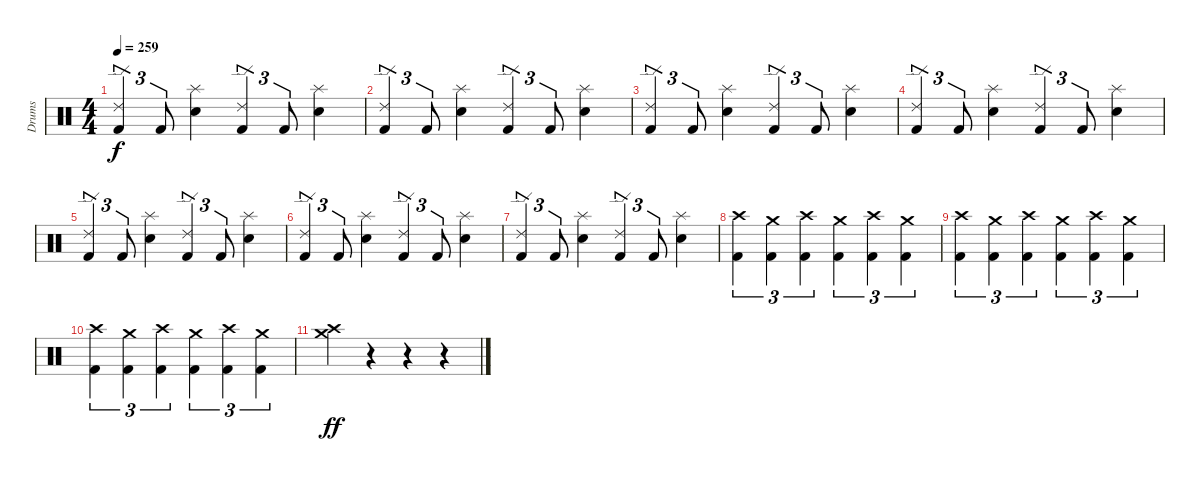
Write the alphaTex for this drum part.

\track ("Drums" "Drums") {instrument percussion}
\staff {score}
\articulation defaults
\ts (4 4)
\tempo 259
\clef neutral
\ks c
("Ride (edge) 2" "Kick (hit) 2").4{tu (3 2) dy f} "Kick (hit) 2".8{tu (3 2)} ("Splash (hit)" "Snare (hit) 2").4 ("Ride (edge) 2" "Kick (hit) 2").4{tu (3 2)} "Kick (hit) 2".8{tu (3 2)} ("Splash (hit)" "Snare (hit) 2").4 |
("Ride (edge) 2" "Kick (hit) 2").4{tu (3 2)} "Kick (hit) 2".8{tu (3 2)} ("Splash (hit)" "Snare (hit) 2").4 ("Ride (edge) 2" "Kick (hit) 2").4{tu (3 2)} "Kick (hit) 2".8{tu (3 2)} ("Splash (hit)" "Snare (hit) 2").4 |
("Ride (edge) 2" "Kick (hit) 2").4{tu (3 2)} "Kick (hit) 2".8{tu (3 2)} ("Splash (hit)" "Snare (hit) 2").4 ("Ride (edge) 2" "Kick (hit) 2").4{tu (3 2)} "Kick (hit) 2".8{tu (3 2)} ("Splash (hit)" "Snare (hit) 2").4 |
("Ride (edge) 2" "Kick (hit) 2").4{tu (3 2)} "Kick (hit) 2".8{tu (3 2)} ("Splash (hit)" "Snare (hit) 2").4 ("Ride (edge) 2" "Kick (hit) 2").4{tu (3 2)} "Kick (hit) 2".8{tu (3 2)} ("Splash (hit)" "Snare (hit) 2").4 |
("Ride (edge) 2" "Kick (hit) 2").4{tu (3 2)} "Kick (hit) 2".8{tu (3 2)} ("Splash (hit)" "Snare (hit) 2").4 ("Ride (edge) 2" "Kick (hit) 2").4{tu (3 2)} "Kick (hit) 2".8{tu (3 2)} ("Splash (hit)" "Snare (hit) 2").4 |
("Ride (edge) 2" "Kick (hit) 2").4{tu (3 2)} "Kick (hit) 2".8{tu (3 2)} ("Splash (hit)" "Snare (hit) 2").4 ("Ride (edge) 2" "Kick (hit) 2").4{tu (3 2)} "Kick (hit) 2".8{tu (3 2)} ("Splash (hit)" "Snare (hit) 2").4 |
("Ride (edge) 2" "Kick (hit) 2").4{tu (3 2)} "Kick (hit) 2".8{tu (3 2)} ("Splash (hit)" "Snare (hit) 2").4 ("Ride (edge) 2" "Kick (hit) 2").4{tu (3 2)} "Kick (hit) 2".8{tu (3 2)} ("Splash (hit)" "Snare (hit) 2").4 |
("Kick (hit) 2" "Crash high (hit)").4{tu (3 2)} ("Kick (hit) 2" "Crash medium (hit)").4{tu (3 2)} ("Kick (hit) 2" "Crash high (hit)").4{tu (3 2)} ("Kick (hit) 2" "Crash medium (hit)").4{tu (3 2)} ("Kick (hit) 2" "Crash high (hit)").4{tu (3 2)} ("Kick (hit) 2" "Crash medium (hit)").4{tu (3 2)} |
("Kick (hit) 2" "Crash high (hit)").4{tu (3 2)} ("Kick (hit) 2" "Crash medium (hit)").4{tu (3 2)} ("Kick (hit) 2" "Crash high (hit)").4{tu (3 2)} ("Kick (hit) 2" "Crash medium (hit)").4{tu (3 2)} ("Kick (hit) 2" "Crash high (hit)").4{tu (3 2)} ("Kick (hit) 2" "Crash medium (hit)").4{tu (3 2)} |
("Kick (hit) 2" "Crash high (hit)").4{tu (3 2)} ("Kick (hit) 2" "Crash medium (hit)").4{tu (3 2)} ("Kick (hit) 2" "Crash high (hit)").4{tu (3 2)} ("Kick (hit) 2" "Crash medium (hit)").4{tu (3 2)} ("Kick (hit) 2" "Crash high (hit)").4{tu (3 2)} ("Kick (hit) 2" "Crash medium (hit)").4{tu (3 2)} |
("Crash high (hit)" "Crash medium (hit)").4{dy ff} r.4 r.4 r.4
